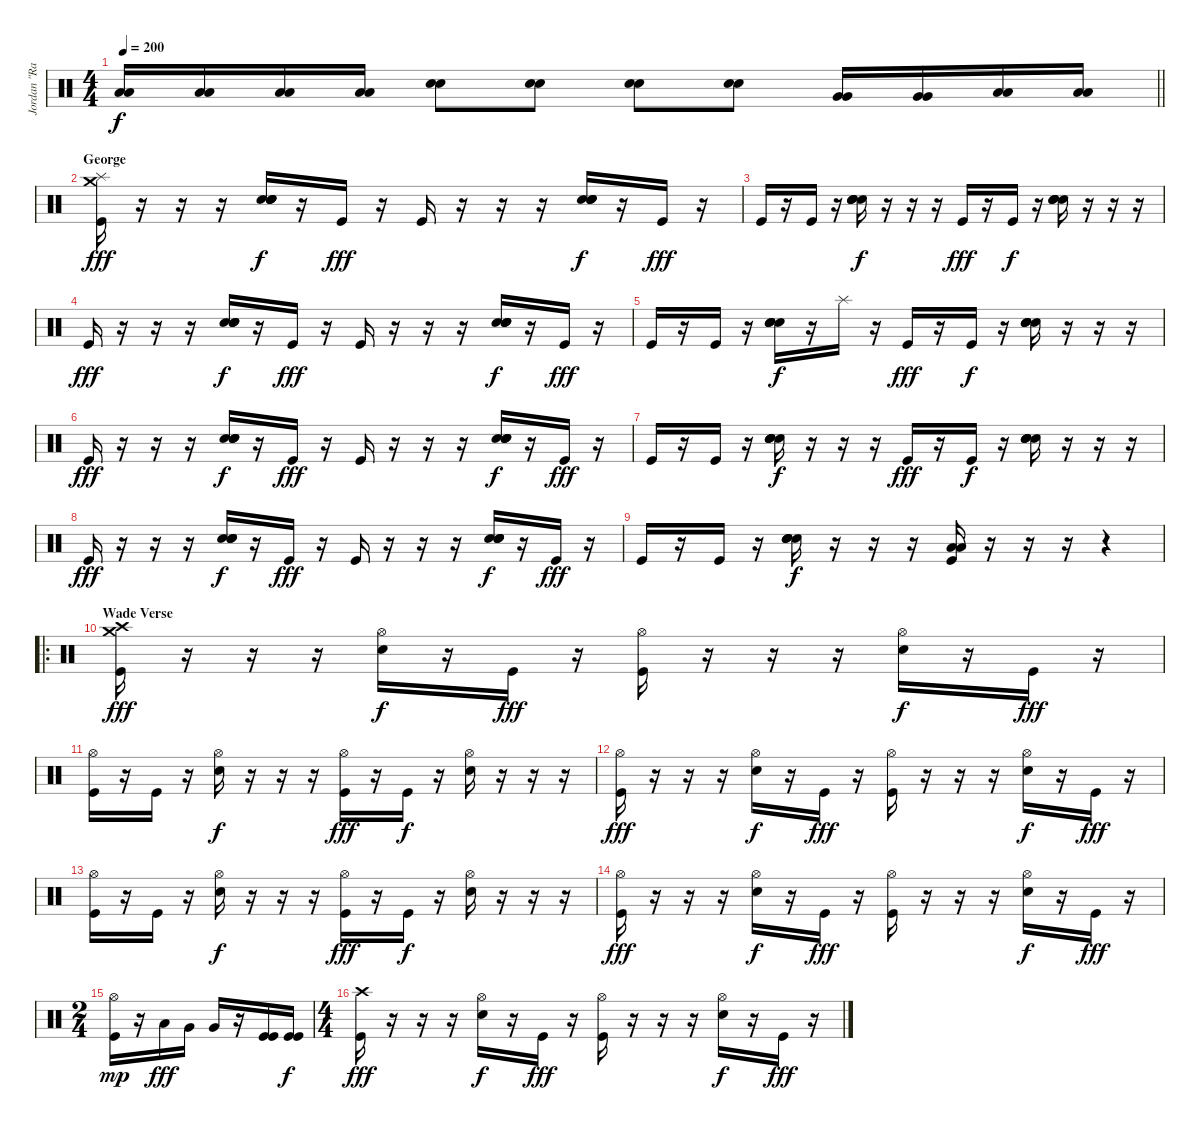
\track ("Jordan \"Ratbeard\" Hastings" "Jordan \"Ra") {instrument percussion}
\staff {score}
\articulation defaults
\ts (4 4)
\tempo 200
\clef neutral
\barLineRight lightlight
\ks c
("Low Tom (hit)" "Low Tom (hit)").16{dy f} ("Low Tom (hit)" "Low Tom (hit)").16 ("Low Floor Tom (hit)" "Low Floor Tom (hit)").16 ("Low Floor Tom (hit)" "Low Floor Tom (hit)").16 ("Electric Snare (hit)" "Electric Snare (hit)").8 ("Electric Snare (hit)" "Electric Snare (hit)").8 ("Electric Snare (hit)" "Electric Snare (hit)").8 ("Electric Snare (hit)" "Electric Snare (hit)").8 ("Very Low Tom (hit)" "Very Low Tom (hit)").16 ("Very Low Tom (hit)" "Very Low Tom (hit)").16 ("Low Tom (hit)" "Low Tom (hit)").16 ("Low Tom (hit)" "Low Tom (hit)").16 |
\section ("" "George")
("Crash medium (hit)" "Splash (hit)" "Kick (hit)").16{dy fff} r.16 r.16 r.16 ("Snare (hit) 2" "Electric Snare (hit)" "Electric Snare (hit)" "Snare (hit) 2").16{dy f} r.16 "Kick (hit)".16{dy fff} r.16 "Kick (hit)".16 r.16 r.16 r.16 ("Snare (hit) 2" "Electric Snare (hit)" "Electric Snare (hit)" "Snare (hit) 2").16{dy f} r.16 "Kick (hit)".16{dy fff} r.16 |
"Kick (hit)".16 r.16 "Kick (hit)".16 r.16 ("Snare (hit) 2" "Snare (hit) 2" "Electric Snare (hit)" "Electric Snare (hit)").16{dy f} r.16 r.16 r.16 "Kick (hit)".16{dy fff} r.16 "Kick (hit)".16{dy f} r.16 ("Snare (hit) 2" "Electric Snare (hit)" "Electric Snare (hit)" "Snare (hit) 2").16 r.16 r.16 r.16 |
"Kick (hit)".16{dy fff} r.16 r.16 r.16 ("Snare (hit) 2" "Electric Snare (hit)" "Electric Snare (hit)" "Snare (hit) 2").16{dy f} r.16 "Kick (hit)".16{dy fff} r.16 "Kick (hit)".16 r.16 r.16 r.16 ("Snare (hit) 2" "Electric Snare (hit)" "Electric Snare (hit)" "Snare (hit) 2").16{dy f} r.16 "Kick (hit)".16{dy fff} r.16 |
"Kick (hit)".16 r.16 "Kick (hit)".16 r.16 ("Snare (hit) 2" "Snare (hit) 2" "Electric Snare (hit)" "Electric Snare (hit)").16{dy f} r.16 "Splash (hit)".16 r.16 "Kick (hit)".16{dy fff} r.16 "Kick (hit)".16{dy f} r.16 ("Snare (hit) 2" "Electric Snare (hit)" "Electric Snare (hit)" "Snare (hit) 2").16 r.16 r.16 r.16 |
"Kick (hit)".16{dy fff} r.16 r.16 r.16 ("Snare (hit) 2" "Electric Snare (hit)" "Electric Snare (hit)" "Snare (hit) 2").16{dy f} r.16 "Kick (hit)".16{dy fff} r.16 "Kick (hit)".16 r.16 r.16 r.16 ("Snare (hit) 2" "Electric Snare (hit)" "Electric Snare (hit)" "Snare (hit) 2").16{dy f} r.16 "Kick (hit)".16{dy fff} r.16 |
"Kick (hit)".16 r.16 "Kick (hit)".16 r.16 ("Snare (hit) 2" "Snare (hit) 2" "Electric Snare (hit)" "Electric Snare (hit)").16{dy f} r.16 r.16 r.16 "Kick (hit)".16{dy fff} r.16 "Kick (hit)".16{dy f} r.16 ("Snare (hit) 2" "Electric Snare (hit)" "Electric Snare (hit)" "Snare (hit) 2").16 r.16 r.16 r.16 |
"Kick (hit)".16{dy fff} r.16 r.16 r.16 ("Snare (hit) 2" "Electric Snare (hit)" "Electric Snare (hit)" "Snare (hit) 2").16{dy f} r.16 "Kick (hit)".16{dy fff} r.16 "Kick (hit)".16 r.16 r.16 r.16 ("Snare (hit) 2" "Electric Snare (hit)" "Electric Snare (hit)" "Snare (hit) 2").16{dy f} r.16 "Kick (hit)".16{dy fff} r.16 |
"Kick (hit)".16 r.16 "Kick (hit)".16 r.16 ("Snare (hit) 2" "Snare (hit) 2" "Electric Snare (hit)" "Electric Snare (hit)").16{dy f} r.16 r.16 r.16 ("Low Tom (hit)" "Low Tom (hit)" "Kick (hit)").16 r.16 r.16 r.16 r.4 |
\ro
\section ("" "Wade Verse")
("Crash medium (hit)" "Crash high (hit)" "Kick (hit)").16{dy fff} r.16 r.16 r.16 ("Hi-Hat (open)" "Electric Snare (hit)").16{dy f} r.16 "Kick (hit)".16{dy fff} r.16 ("Hi-Hat (open)" "Kick (hit)").16 r.16 r.16 r.16 ("Hi-Hat (open)" "Electric Snare (hit)").16{dy f} r.16 "Kick (hit)".16{dy fff} r.16 |
("Hi-Hat (open)" "Kick (hit)").16 r.16 "Kick (hit)".16 r.16 ("Hi-Hat (open)" "Electric Snare (hit)").16{dy f} r.16 r.16 r.16 ("Hi-Hat (open)" "Kick (hit)").16{dy fff} r.16 "Kick (hit)".16{dy f} r.16 ("Hi-Hat (open)" "Electric Snare (hit)").16 r.16 r.16 r.16 |
("Hi-Hat (open)" "Kick (hit)").16{dy fff} r.16 r.16 r.16 ("Hi-Hat (open)" "Electric Snare (hit)").16{dy f} r.16 "Kick (hit)".16{dy fff} r.16 ("Hi-Hat (open)" "Kick (hit)").16 r.16 r.16 r.16 ("Hi-Hat (open)" "Electric Snare (hit)").16{dy f} r.16 "Kick (hit)".16{dy fff} r.16 |
("Hi-Hat (open)" "Kick (hit)").16 r.16 "Kick (hit)".16 r.16 ("Hi-Hat (open)" "Electric Snare (hit)").16{dy f} r.16 r.16 r.16 ("Hi-Hat (open)" "Kick (hit)").16{dy fff} r.16 "Kick (hit)".16{dy f} r.16 ("Hi-Hat (open)" "Electric Snare (hit)").16 r.16 r.16 r.16 |
("Hi-Hat (open)" "Kick (hit)").16{dy fff} r.16 r.16 r.16 ("Hi-Hat (open)" "Electric Snare (hit)").16{dy f} r.16 "Kick (hit)".16{dy fff} r.16 ("Hi-Hat (open)" "Kick (hit)").16 r.16 r.16 r.16 ("Hi-Hat (open)" "Electric Snare (hit)").16{dy f} r.16 "Kick (hit)".16{dy fff} r.16 |
\ts (2 4)
("Hi-Hat (open)" "Kick (hit)").16{dy mp} r.16 "Low Tom (hit)".16{dy fff} "Very Low Tom (hit)".16 "Very Low Tom (hit)".16 r.16 ("Kick (hit)" "Kick (hit)").16 ("Kick (hit)" "Kick (hit)").16{dy f} |
\ts (4 4)
("Crash high (hit)" "Kick (hit)").16{dy fff} r.16 r.16 r.16 ("Hi-Hat (open)" "Electric Snare (hit)").16{dy f} r.16 "Kick (hit)".16{dy fff} r.16 ("Hi-Hat (open)" "Kick (hit)").16 r.16 r.16 r.16 ("Hi-Hat (open)" "Electric Snare (hit)").16{dy f} r.16 "Kick (hit)".16{dy fff} r.16
